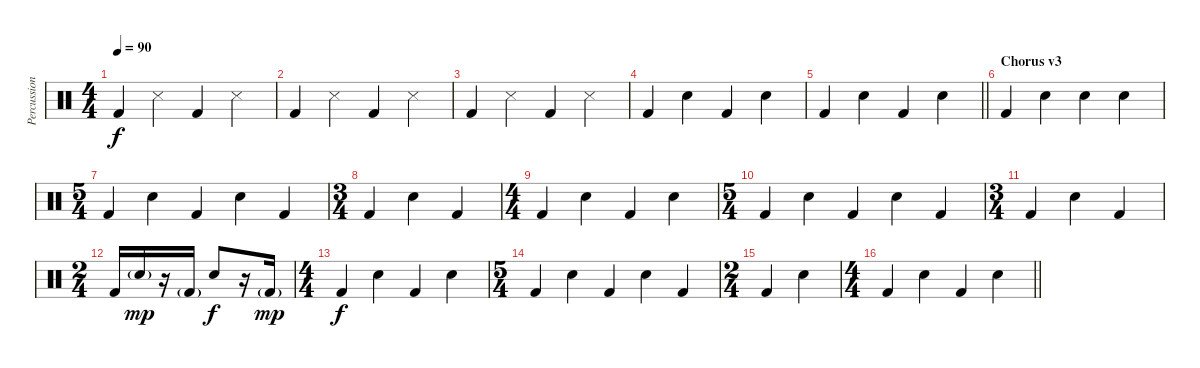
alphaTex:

\track ("Percussion" "Percussion") {instrument percussion}
\staff {score}
\articulation defaults
\ts (4 4)
\tempo 90
\clef neutral
\ks c "Kick (hit) 2".4{dy f} "Snare (side stick) 3".4 "Kick (hit) 2".4 "Snare (side stick) 3".4
|
"Kick (hit) 2".4 "Snare (side stick) 3".4 "Kick (hit) 2".4 "Snare (side stick) 3".4 |
"Kick (hit) 2".4 "Snare (side stick) 3".4 "Kick (hit) 2".4 "Snare (side stick) 3".4 |
"Kick (hit) 2".4 "Snare (hit) 2".4 "Kick (hit) 2".4 "Snare (hit) 2".4 |
\barLineRight lightlight "Kick (hit) 2".4 "Snare (hit) 2".4 "Kick (hit) 2".4 "Snare (hit) 2".4
|
\section ("" "Chorus v3")
"Kick (hit) 2".4 "Snare (hit) 2".4 "Snare (hit) 2".4 "Snare (hit) 2".4 |
\ts (5 4)
"Kick (hit) 2".4 "Snare (hit) 2".4 "Kick (hit) 2".4 "Snare (hit) 2".4 "Kick (hit) 2".4 |
\ts (3 4)
"Kick (hit) 2".4 "Snare (hit) 2".4 "Kick (hit) 2".4 |
\ts (4 4)
"Kick (hit) 2".4 "Snare (hit) 2".4 "Kick (hit) 2".4 "Snare (hit) 2".4 |
\ts (5 4)
"Kick (hit) 2".4 "Snare (hit) 2".4 "Kick (hit) 2".4 "Snare (hit) 2".4 "Kick (hit) 2".4 |
\ts (3 4)
"Kick (hit) 2".4 "Snare (hit) 2".4 "Kick (hit) 2".4 |
\ts (2 4)
"Kick (hit) 2".16 "Snare (hit) 2"{g}.16{dy mp} r.16 "Kick (hit) 2"{g}.16 "Snare (hit) 2".8{dy f} r.16 "Kick (hit) 2"{g}.16{dy mp} |
\ts (4 4)
"Kick (hit) 2".4{dy f} "Snare (hit) 2".4 "Kick (hit) 2".4 "Snare (hit) 2".4 |
\ts (5 4)
"Kick (hit) 2".4 "Snare (hit) 2".4 "Kick (hit) 2".4 "Snare (hit) 2".4 "Kick (hit) 2".4 |
\ts (2 4)
"Kick (hit) 2".4 "Snare (hit) 2".4 |
\ts (4 4)
\barLineRight lightlight "Kick (hit) 2".4 "Snare (hit) 2".4 "Kick (hit) 2".4 "Snare (hit) 2".4
